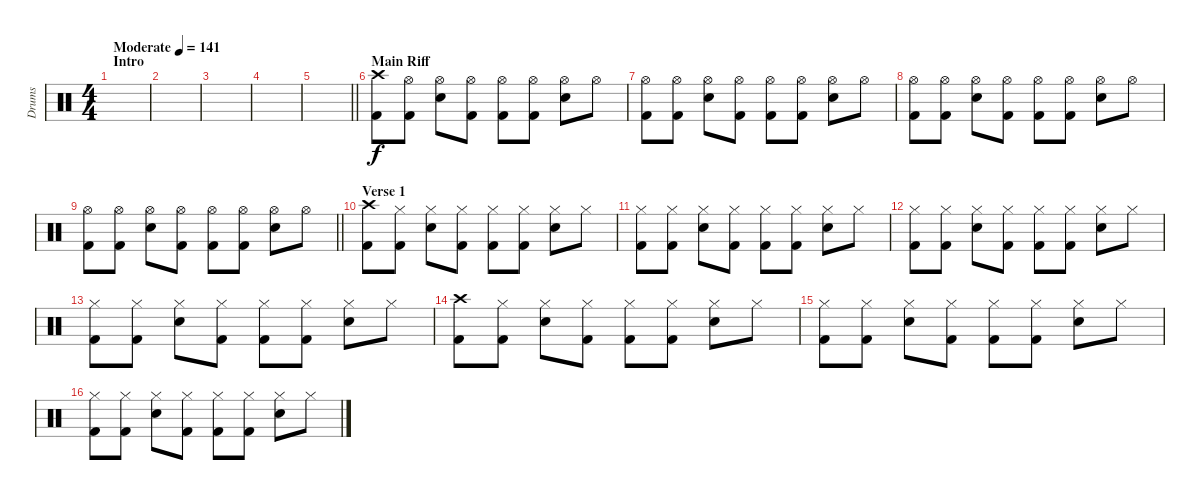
\track ("Drums" "Drums") {instrument percussion}
\staff {score}
\articulation defaults
\ts (4 4)
\section ("" "Intro")
\tempo (141 "Moderate")
\clef neutral
\ks c
|
|
|
|
\barLineRight lightlight
|
\section ("" "Main Riff")
("Crash high (hit)" "Kick (hit) 2").8 ("Hi-Hat (open)" "Kick (hit) 2").8 ("Hi-Hat (open)" "Electric Snare (hit)").8 ("Hi-Hat (open)" "Kick (hit) 2").8 ("Hi-Hat (open)" "Kick (hit) 2").8 ("Hi-Hat (open)" "Kick (hit) 2").8 ("Hi-Hat (open)" "Electric Snare (hit)").8 "Hi-Hat (open)".8 |
("Hi-Hat (open)" "Kick (hit) 2").8 ("Hi-Hat (open)" "Kick (hit) 2").8 ("Hi-Hat (open)" "Electric Snare (hit)").8 ("Hi-Hat (open)" "Kick (hit) 2").8 ("Hi-Hat (open)" "Kick (hit) 2").8 ("Hi-Hat (open)" "Kick (hit) 2").8 ("Hi-Hat (open)" "Electric Snare (hit)").8 "Hi-Hat (open)".8 |
("Hi-Hat (open)" "Kick (hit) 2").8 ("Hi-Hat (open)" "Kick (hit) 2").8 ("Hi-Hat (open)" "Electric Snare (hit)").8 ("Hi-Hat (open)" "Kick (hit) 2").8 ("Hi-Hat (open)" "Kick (hit) 2").8 ("Hi-Hat (open)" "Kick (hit) 2").8 ("Hi-Hat (open)" "Electric Snare (hit)").8 "Hi-Hat (open)".8 |
\barLineRight lightlight
("Hi-Hat (open)" "Kick (hit) 2").8 ("Hi-Hat (open)" "Kick (hit) 2").8 ("Hi-Hat (open)" "Electric Snare (hit)").8 ("Hi-Hat (open)" "Kick (hit) 2").8 ("Hi-Hat (open)" "Kick (hit) 2").8 ("Hi-Hat (open)" "Kick (hit) 2").8 ("Hi-Hat (open)" "Electric Snare (hit)").8 "Hi-Hat (open)".8 |
\section ("" "Verse 1")
("Crash high (hit)" "Kick (hit) 2").8 ("Hi-Hat (closed)" "Kick (hit) 2").8 ("Hi-Hat (closed)" "Electric Snare (hit)").8 ("Hi-Hat (closed)" "Kick (hit) 2").8 ("Hi-Hat (closed)" "Kick (hit) 2").8 ("Hi-Hat (closed)" "Kick (hit) 2").8 ("Hi-Hat (closed)" "Electric Snare (hit)").8 "Hi-Hat (closed)".8 |
("Hi-Hat (closed)" "Kick (hit) 2").8 ("Hi-Hat (closed)" "Kick (hit) 2").8 ("Hi-Hat (closed)" "Electric Snare (hit)").8 ("Hi-Hat (closed)" "Kick (hit) 2").8 ("Hi-Hat (closed)" "Kick (hit) 2").8 ("Hi-Hat (closed)" "Kick (hit) 2").8 ("Hi-Hat (closed)" "Electric Snare (hit)").8 "Hi-Hat (closed)".8 |
("Hi-Hat (closed)" "Kick (hit) 2").8 ("Hi-Hat (closed)" "Kick (hit) 2").8 ("Hi-Hat (closed)" "Electric Snare (hit)").8 ("Hi-Hat (closed)" "Kick (hit) 2").8 ("Hi-Hat (closed)" "Kick (hit) 2").8 ("Hi-Hat (closed)" "Kick (hit) 2").8 ("Hi-Hat (closed)" "Electric Snare (hit)").8 "Hi-Hat (closed)".8 |
("Hi-Hat (closed)" "Kick (hit) 2").8 ("Hi-Hat (closed)" "Kick (hit) 2").8 ("Hi-Hat (closed)" "Electric Snare (hit)").8 ("Hi-Hat (closed)" "Kick (hit) 2").8 ("Hi-Hat (closed)" "Kick (hit) 2").8 ("Hi-Hat (closed)" "Kick (hit) 2").8 ("Hi-Hat (closed)" "Electric Snare (hit)").8 "Hi-Hat (closed)".8 |
("Crash high (hit)" "Kick (hit) 2").8 ("Hi-Hat (closed)" "Kick (hit) 2").8 ("Hi-Hat (closed)" "Electric Snare (hit)").8 ("Hi-Hat (closed)" "Kick (hit) 2").8 ("Hi-Hat (closed)" "Kick (hit) 2").8 ("Hi-Hat (closed)" "Kick (hit) 2").8 ("Hi-Hat (closed)" "Electric Snare (hit)").8 "Hi-Hat (closed)".8 |
("Hi-Hat (closed)" "Kick (hit) 2").8 ("Hi-Hat (closed)" "Kick (hit) 2").8 ("Hi-Hat (closed)" "Electric Snare (hit)").8 ("Hi-Hat (closed)" "Kick (hit) 2").8 ("Hi-Hat (closed)" "Kick (hit) 2").8 ("Hi-Hat (closed)" "Kick (hit) 2").8 ("Hi-Hat (closed)" "Electric Snare (hit)").8 "Hi-Hat (closed)".8 |
("Hi-Hat (closed)" "Kick (hit) 2").8 ("Hi-Hat (closed)" "Kick (hit) 2").8 ("Hi-Hat (closed)" "Electric Snare (hit)").8 ("Hi-Hat (closed)" "Kick (hit) 2").8 ("Hi-Hat (closed)" "Kick (hit) 2").8 ("Hi-Hat (closed)" "Kick (hit) 2").8 ("Hi-Hat (closed)" "Electric Snare (hit)").8 "Hi-Hat (closed)".8
